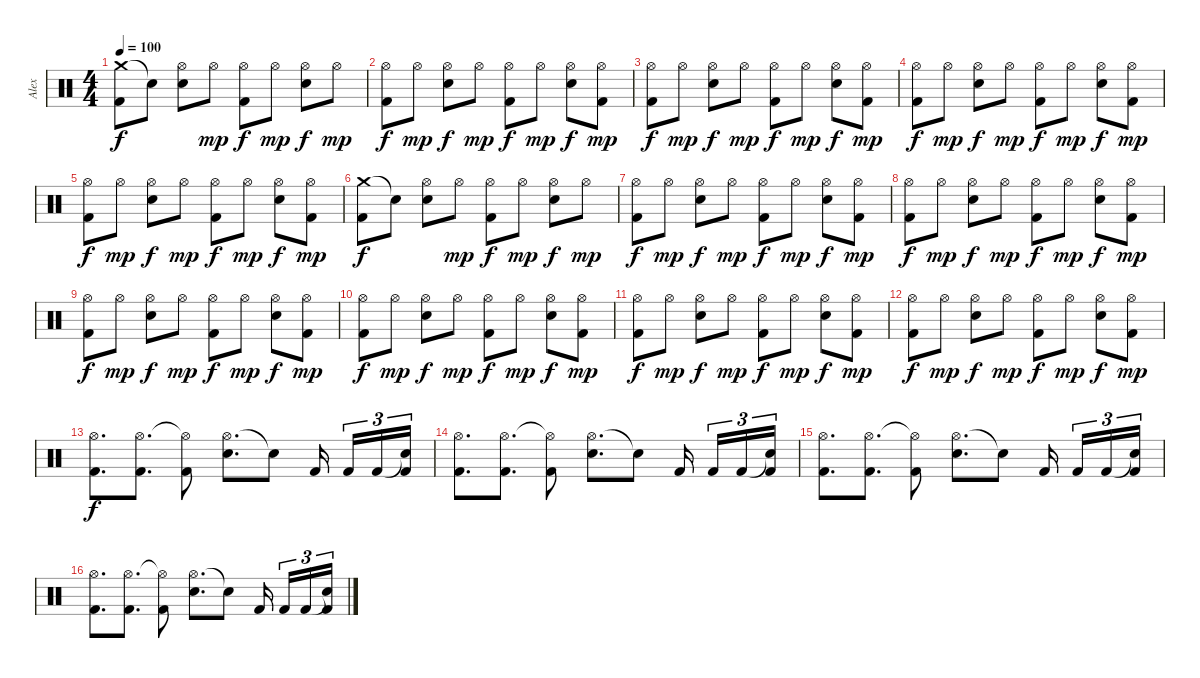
\track ("Alex" "Alex") {instrument percussion}
\staff {score}
\articulation defaults
\ts (4 4)
\tempo 100
\clef neutral
\ks c
("Crash medium (hit)" "Kick (hit) 2").8{dy f} "Snare (hit)"{t}.8 ("Hi-Hat (open)" "Electric Snare (hit)").8 "Hi-Hat (open)".8{dy mp} ("Hi-Hat (open)" "Kick (hit) 2").8{dy f} "Hi-Hat (open)".8{dy mp} ("Hi-Hat (open)" "Electric Snare (hit)").8{dy f} "Hi-Hat (open)".8{dy mp} |
("Hi-Hat (open)" "Kick (hit) 2").8{dy f} "Hi-Hat (open)".8{dy mp} ("Hi-Hat (open)" "Electric Snare (hit)").8{dy f} "Hi-Hat (open)".8{dy mp} ("Hi-Hat (open)" "Kick (hit) 2").8{dy f} "Hi-Hat (open)".8{dy mp} ("Hi-Hat (open)" "Electric Snare (hit)").8{dy f} ("Hi-Hat (open)" "Kick (hit) 2").8{dy mp} |
("Hi-Hat (open)" "Kick (hit) 2").8{dy f} "Hi-Hat (open)".8{dy mp} ("Hi-Hat (open)" "Electric Snare (hit)").8{dy f} "Hi-Hat (open)".8{dy mp} ("Hi-Hat (open)" "Kick (hit) 2").8{dy f} "Hi-Hat (open)".8{dy mp} ("Hi-Hat (open)" "Electric Snare (hit)").8{dy f} ("Hi-Hat (open)" "Kick (hit) 2").8{dy mp} |
("Hi-Hat (open)" "Kick (hit) 2").8{dy f} "Hi-Hat (open)".8{dy mp} ("Hi-Hat (open)" "Electric Snare (hit)").8{dy f} "Hi-Hat (open)".8{dy mp} ("Hi-Hat (open)" "Kick (hit) 2").8{dy f} "Hi-Hat (open)".8{dy mp} ("Hi-Hat (open)" "Electric Snare (hit)").8{dy f} ("Hi-Hat (open)" "Kick (hit) 2").8{dy mp} |
("Hi-Hat (open)" "Kick (hit) 2").8{dy f} "Hi-Hat (open)".8{dy mp} ("Hi-Hat (open)" "Electric Snare (hit)").8{dy f} "Hi-Hat (open)".8{dy mp} ("Hi-Hat (open)" "Kick (hit) 2").8{dy f} "Hi-Hat (open)".8{dy mp} ("Hi-Hat (open)" "Electric Snare (hit)").8{dy f} ("Hi-Hat (open)" "Kick (hit) 2").8{dy mp} |
("Crash medium (hit)" "Kick (hit) 2").8{dy f} "Snare (hit)"{t}.8 ("Hi-Hat (open)" "Electric Snare (hit)").8 "Hi-Hat (open)".8{dy mp} ("Hi-Hat (open)" "Kick (hit) 2").8{dy f} "Hi-Hat (open)".8{dy mp} ("Hi-Hat (open)" "Electric Snare (hit)").8{dy f} "Hi-Hat (open)".8{dy mp} |
("Hi-Hat (open)" "Kick (hit) 2").8{dy f} "Hi-Hat (open)".8{dy mp} ("Hi-Hat (open)" "Electric Snare (hit)").8{dy f} "Hi-Hat (open)".8{dy mp} ("Hi-Hat (open)" "Kick (hit) 2").8{dy f} "Hi-Hat (open)".8{dy mp} ("Hi-Hat (open)" "Electric Snare (hit)").8{dy f} ("Hi-Hat (open)" "Kick (hit) 2").8{dy mp} |
("Hi-Hat (open)" "Kick (hit) 2").8{dy f} "Hi-Hat (open)".8{dy mp} ("Hi-Hat (open)" "Electric Snare (hit)").8{dy f} "Hi-Hat (open)".8{dy mp} ("Hi-Hat (open)" "Kick (hit) 2").8{dy f} "Hi-Hat (open)".8{dy mp} ("Hi-Hat (open)" "Electric Snare (hit)").8{dy f} ("Hi-Hat (open)" "Kick (hit) 2").8{dy mp} |
("Hi-Hat (open)" "Kick (hit) 2").8{dy f} "Hi-Hat (open)".8{dy mp} ("Hi-Hat (open)" "Electric Snare (hit)").8{dy f} "Hi-Hat (open)".8{dy mp} ("Hi-Hat (open)" "Kick (hit) 2").8{dy f} "Hi-Hat (open)".8{dy mp} ("Hi-Hat (open)" "Electric Snare (hit)").8{dy f} ("Hi-Hat (open)" "Kick (hit) 2").8{dy mp} |
("Hi-Hat (open)" "Kick (hit) 2").8{dy f} "Hi-Hat (open)".8{dy mp} ("Hi-Hat (open)" "Electric Snare (hit)").8{dy f} "Hi-Hat (open)".8{dy mp} ("Hi-Hat (open)" "Kick (hit) 2").8{dy f} "Hi-Hat (open)".8{dy mp} ("Hi-Hat (open)" "Electric Snare (hit)").8{dy f} ("Hi-Hat (open)" "Kick (hit) 2").8{dy mp} |
("Hi-Hat (open)" "Kick (hit) 2").8{dy f} "Hi-Hat (open)".8{dy mp} ("Hi-Hat (open)" "Electric Snare (hit)").8{dy f} "Hi-Hat (open)".8{dy mp} ("Hi-Hat (open)" "Kick (hit) 2").8{dy f} "Hi-Hat (open)".8{dy mp} ("Hi-Hat (open)" "Electric Snare (hit)").8{dy f} ("Hi-Hat (open)" "Kick (hit) 2").8{dy mp} |
("Hi-Hat (open)" "Kick (hit) 2").8{dy f} "Hi-Hat (open)".8{dy mp} ("Hi-Hat (open)" "Electric Snare (hit)").8{dy f} "Hi-Hat (open)".8{dy mp} ("Hi-Hat (open)" "Kick (hit) 2").8{dy f} "Hi-Hat (open)".8{dy mp} ("Hi-Hat (open)" "Electric Snare (hit)").8{dy f} ("Hi-Hat (open)" "Kick (hit) 2").8{dy mp} |
("Hi-Hat (open)" "Kick (hit) 2").8{d dy f} ("Hi-Hat (open)" "Kick (hit) 2").8{d} ("Hi-Hat (open)"{t} "Kick (hit) 2").8 ("Hi-Hat (open)" "Electric Snare (hit)").8{d} "Snare (hit)"{t}.8 "Kick (hit) 2".16 "Kick (hit) 2".16{tu (3 2)} "Kick (hit) 2".16{tu (3 2)} ("Snare (hit)"{t} "Kick (hit) 2").16{tu (3 2)} |
("Hi-Hat (open)" "Kick (hit) 2").8{d} ("Hi-Hat (open)" "Kick (hit) 2").8{d} ("Hi-Hat (open)"{t} "Kick (hit) 2").8 ("Hi-Hat (open)" "Electric Snare (hit)").8{d} "Snare (hit)"{t}.8 "Kick (hit) 2".16 "Kick (hit) 2".16{tu (3 2)} "Kick (hit) 2".16{tu (3 2)} ("Snare (hit)"{t} "Kick (hit) 2").16{tu (3 2)} |
("Hi-Hat (open)" "Kick (hit) 2").8{d} ("Hi-Hat (open)" "Kick (hit) 2").8{d} ("Hi-Hat (open)"{t} "Kick (hit) 2").8 ("Hi-Hat (open)" "Electric Snare (hit)").8{d} "Snare (hit)"{t}.8 "Kick (hit) 2".16 "Kick (hit) 2".16{tu (3 2)} "Kick (hit) 2".16{tu (3 2)} ("Snare (hit)"{t} "Kick (hit) 2").16{tu (3 2)} |
("Hi-Hat (open)" "Kick (hit) 2").8{d} ("Hi-Hat (open)" "Kick (hit) 2").8{d} ("Hi-Hat (open)"{t} "Kick (hit) 2").8 ("Hi-Hat (open)" "Electric Snare (hit)").8{d} "Snare (hit)"{t}.8 "Kick (hit) 2".16 "Kick (hit) 2".16{tu (3 2)} "Kick (hit) 2".16{tu (3 2)} ("Snare (hit)"{t} "Kick (hit) 2").16{tu (3 2)}
